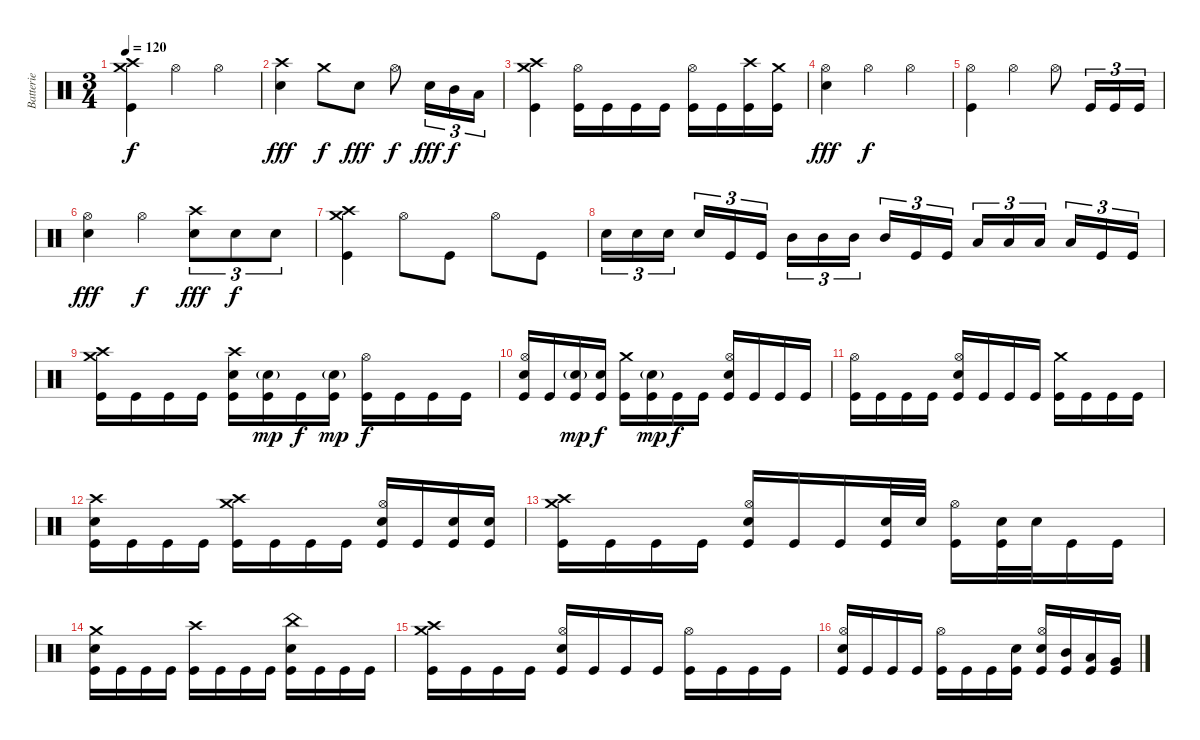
\track ("Batterie" "Batterie") {instrument percussion}
\staff {score}
\articulation defaults
\ts (3 4)
\tempo 120
\clef neutral
\ks c
("Crash medium (hit)" "Crash high (hit)" "Kick (hit)").4{dy f} "Hi-Hat (open)".4 "Hi-Hat (open)".4 |
("Crash high (hit)" "Electric Snare (hit)").4{dy fff} "Crash medium (hit)".8{dy f} "Electric Snare (hit)".8{dy fff} "Hi-Hat (open)".8{dy f} "Electric Snare (hit)".16{tu (3 2) dy fff} "Mid Tom (hit)".16{tu (3 2) dy f} "Low Floor Tom (hit)".16{tu (3 2)} |
("Crash medium (hit)" "Crash high (hit)" "Kick (hit)").4 ("Hi-Hat (open)" "Kick (hit)").16 "Kick (hit)".16 "Kick (hit)".16 "Kick (hit)".16 ("Hi-Hat (open)" "Kick (hit)").16 "Kick (hit)".16 ("Crash high (hit)" "Kick (hit)").16 ("Crash medium (hit)" "Kick (hit)").16 |
("Hi-Hat (open)" "Electric Snare (hit)").4{dy fff} "Hi-Hat (open)".4{dy f} "Hi-Hat (open)".4 |
("Hi-Hat (open)" "Kick (hit)").4 "Hi-Hat (open)".4 "Hi-Hat (open)".8 "Kick (hit)".16{tu (3 2)} "Kick (hit)".16{tu (3 2)} "Kick (hit)".16{tu (3 2)} |
("Hi-Hat (open)" "Electric Snare (hit)").4{dy fff} "Hi-Hat (open)".4{dy f} ("Crash high (hit)" "Electric Snare (hit)").8{tu (3 2) dy fff} "Electric Snare (hit)".8{tu (3 2) dy f} "Electric Snare (hit)".8{tu (3 2)} |
("Crash medium (hit)" "Crash high (hit)" "Kick (hit)").4 "Hi-Hat (open)".8 "Kick (hit)".8 "Hi-Hat (open)".8 "Kick (hit)".8 |
"Electric Snare (hit)".16{tu (3 2)} "Electric Snare (hit)".16{tu (3 2)} "Electric Snare (hit)".16{tu (3 2)} "Electric Snare (hit)".16{tu (3 2)} "Kick (hit)".16{tu (3 2)} "Kick (hit)".16{tu (3 2)} "Mid Tom (hit)".16{tu (3 2)} "Mid Tom (hit)".16{tu (3 2)} "Mid Tom (hit)".16{tu (3 2)} "Mid Tom (hit)".16{tu (3 2)} "Kick (hit)".16{tu (3 2)} "Kick (hit)".16{tu (3 2)} "Low Floor Tom (hit)".16{tu (3 2)} "Low Floor Tom (hit)".16{tu (3 2)} "Low Floor Tom (hit)".16{tu (3 2)} "Low Floor Tom (hit)".16{tu (3 2)} "Kick (hit)".16{tu (3 2)} "Kick (hit)".16{tu (3 2)} |
("Crash high (hit)" "Crash medium (hit)" "Kick (hit)").16 "Kick (hit)".16 "Kick (hit)".16 "Kick (hit)".16 ("Crash high (hit)" "Electric Snare (hit)" "Kick (hit)").16 ("Electric Snare (hit)"{g} "Kick (hit)").16{dy mp} "Kick (hit)".16{dy f} ("Electric Snare (hit)"{g} "Kick (hit)").16{dy mp} ("Hi-Hat (open)" "Kick (hit)").16{dy f} "Kick (hit)".16 "Kick (hit)".16 "Kick (hit)".16 |
("Hi-Hat (open)" "Electric Snare (hit)" "Kick (hit)").16 "Kick (hit)".16 ("Electric Snare (hit)"{g} "Kick (hit)").16{dy mp} ("Electric Snare (hit)" "Kick (hit)").16{dy f} ("Crash medium (hit)" "Kick (hit)").16 ("Electric Snare (hit)"{g} "Kick (hit)").16{dy mp} "Kick (hit)".16{dy f} "Kick (hit)".16 ("Hi-Hat (open)" "Electric Snare (hit)" "Kick (hit)").16 "Kick (hit)".16 "Kick (hit)".16 "Kick (hit)".16 |
("Hi-Hat (open)" "Kick (hit)").16 "Kick (hit)".16 "Kick (hit)".16 "Kick (hit)".16 ("Hi-Hat (open)" "Electric Snare (hit)" "Kick (hit)").16 "Kick (hit)".16 "Kick (hit)".16 "Kick (hit)".16 ("Crash medium (hit)" "Kick (hit)").16 "Kick (hit)".16 "Kick (hit)".16 "Kick (hit)".16 |
("Crash high (hit)" "Electric Snare (hit)" "Kick (hit)").16 "Kick (hit)".16 "Kick (hit)".16 "Kick (hit)".16 ("Crash high (hit)" "Crash medium (hit)" "Kick (hit)").16 "Kick (hit)".16 "Kick (hit)".16 "Kick (hit)".16 ("Hi-Hat (open)" "Electric Snare (hit)" "Kick (hit)").16 "Kick (hit)".16 ("Electric Snare (hit)" "Kick (hit)").16 ("Electric Snare (hit)" "Kick (hit)").16 |
("Crash high (hit)" "Crash medium (hit)" "Kick (hit)").16 "Kick (hit)".16 "Kick (hit)".16 "Kick (hit)".16 ("Hi-Hat (open)" "Electric Snare (hit)" "Kick (hit)").16 "Kick (hit)".16 "Kick (hit)".16 ("Electric Snare (hit)" "Kick (hit)").32 "Electric Snare (hit)".32 ("Hi-Hat (open)" "Kick (hit)").16 ("Electric Snare (hit)" "Kick (hit)").32 "Electric Snare (hit)".32 "Kick (hit)".16 "Kick (hit)".16 |
("Crash medium (hit)" "Electric Snare (hit)" "Kick (hit)").16 "Kick (hit)".16 "Kick (hit)".16 "Kick (hit)".16 ("Crash high (hit)" "Kick (hit)").16 "Kick (hit)".16 "Kick (hit)".16 "Kick (hit)".16 ("China (hit)" "Electric Snare (hit)" "Kick (hit)").16 "Kick (hit)".16 "Kick (hit)".16 "Kick (hit)".16 |
("Crash medium (hit)" "Crash high (hit)" "Kick (hit)").16 "Kick (hit)".16 "Kick (hit)".16 "Kick (hit)".16 ("Hi-Hat (open)" "Electric Snare (hit)" "Kick (hit)").16 "Kick (hit)".16 "Kick (hit)".16 "Kick (hit)".16 ("Hi-Hat (open)" "Kick (hit)").16 "Kick (hit)".16 "Kick (hit)".16 "Kick (hit)".16 |
("Hi-Hat (open)" "Electric Snare (hit)" "Kick (hit)").16 "Kick (hit)".16 "Kick (hit)".16 "Kick (hit)".16 ("Hi-Hat (open)" "Kick (hit)").16 "Kick (hit)".16 "Kick (hit)".16 ("Electric Snare (hit)" "Kick (hit)").16 ("Hi-Hat (open)" "Electric Snare (hit)" "Kick (hit)").16 ("Mid Tom (hit)" "Kick (hit)").16 ("Low Tom (hit)" "Kick (hit)").16 ("Very Low Tom (hit)" "Kick (hit)").16
